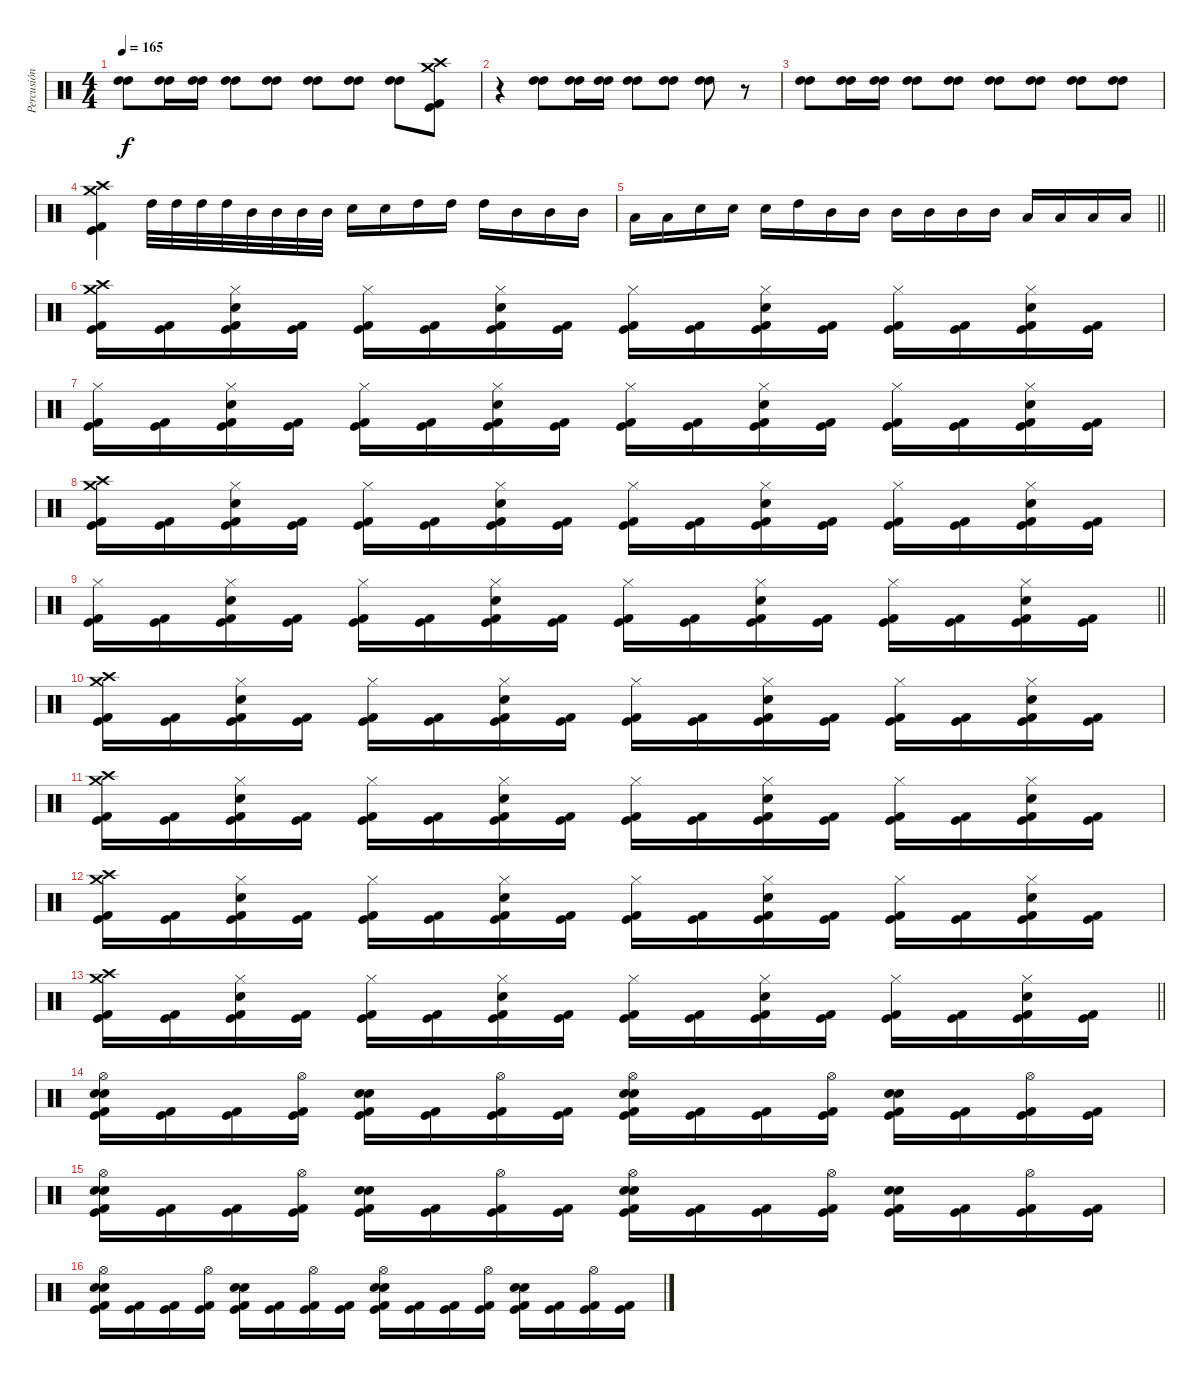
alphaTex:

\track ("Percusión" "Percusión") {instrument percussion}
\staff {score}
\articulation defaults
\ts (4 4)
\tempo 165
\clef neutral
\ks c
("High Tom (hit)" "High Tom (hit)").8{dy f} ("High Tom (hit)" "High Tom (hit)").16 ("High Tom (hit)" "High Tom (hit)").16 ("High Tom (hit)" "High Tom (hit)").8 ("High Tom (hit)" "High Tom (hit)").8 ("High Tom (hit)" "High Tom (hit)").8 ("High Tom (hit)" "High Tom (hit)").8 ("High Tom (hit)" "High Tom (hit)").8 ("Crash medium (hit)" "Crash high (hit)" "Kick (hit) 2" "Kick (hit)").8 |
r.4 ("High Tom (hit)" "High Tom (hit)").8 ("High Tom (hit)" "High Tom (hit)").16 ("High Tom (hit)" "High Tom (hit)").16 ("High Tom (hit)" "High Tom (hit)").8 ("High Tom (hit)" "High Tom (hit)").8 ("High Tom (hit)" "High Tom (hit)").8 r.8 |
("High Tom (hit)" "High Tom (hit)").8 ("High Tom (hit)" "High Tom (hit)").16 ("High Tom (hit)" "High Tom (hit)").16 ("High Tom (hit)" "High Tom (hit)").8 ("High Tom (hit)" "High Tom (hit)").8 ("High Tom (hit)" "High Tom (hit)").8 ("High Tom (hit)" "High Tom (hit)").8 ("High Tom (hit)" "High Tom (hit)").8 ("High Tom (hit)" "High Tom (hit)").8 |
("Crash medium (hit)" "Crash high (hit)" "Kick (hit) 2" "Kick (hit)").4 "High Tom (hit)".32 "High Tom (hit)".32 "High Tom (hit)".32 "High Tom (hit)".32 "Mid Tom (hit)".32 "Mid Tom (hit)".32 "Mid Tom (hit)".32 "Mid Tom (hit)".32 "Electric Snare (hit)".16 "Electric Snare (hit)".16 "High Tom (hit)".16 "High Tom (hit)".16 "High Tom (hit)".16 "Mid Tom (hit)".16 "Mid Tom (hit)".16 "Mid Tom (hit)".16 |
\barLineRight lightlight "Low Tom (hit)".16 "Low Tom (hit)".16 "Electric Snare (hit)".16 "Electric Snare (hit)".16 "Electric Snare (hit)".16 "High Tom (hit)".16 "Mid Tom (hit)".16 "Mid Tom (hit)".16 "Mid Tom (hit)".16 "Mid Tom (hit)".16 "Mid Tom (hit)".16 "Mid Tom (hit)".16 "Low Tom (hit)".16 "Low Tom (hit)".16 "Low Tom (hit)".16 "Low Tom (hit)".16
|
("Crash medium (hit)" "Crash high (hit)" "Kick (hit) 2" "Kick (hit)").16 ("Kick (hit) 2" "Kick (hit)").16 ("Hi-Hat (closed)" "Electric Snare (hit)" "Kick (hit) 2" "Kick (hit)").16 ("Kick (hit) 2" "Kick (hit)").16 ("Hi-Hat (closed)" "Kick (hit) 2" "Kick (hit)").16 ("Kick (hit) 2" "Kick (hit)").16 ("Hi-Hat (closed)" "Electric Snare (hit)" "Kick (hit) 2" "Kick (hit)").16 ("Kick (hit) 2" "Kick (hit)").16 ("Hi-Hat (closed)" "Kick (hit) 2" "Kick (hit)").16 ("Kick (hit) 2" "Kick (hit)").16 ("Hi-Hat (closed)" "Electric Snare (hit)" "Kick (hit) 2" "Kick (hit)").16 ("Kick (hit) 2" "Kick (hit)").16 ("Hi-Hat (closed)" "Kick (hit) 2" "Kick (hit)").16 ("Kick (hit) 2" "Kick (hit)").16 ("Hi-Hat (closed)" "Electric Snare (hit)" "Kick (hit) 2" "Kick (hit)").16 ("Kick (hit) 2" "Kick (hit)").16 |
("Hi-Hat (closed)" "Kick (hit) 2" "Kick (hit)").16 ("Kick (hit) 2" "Kick (hit)").16 ("Hi-Hat (closed)" "Electric Snare (hit)" "Kick (hit) 2" "Kick (hit)").16 ("Kick (hit) 2" "Kick (hit)").16 ("Hi-Hat (closed)" "Kick (hit) 2" "Kick (hit)").16 ("Kick (hit) 2" "Kick (hit)").16 ("Hi-Hat (closed)" "Electric Snare (hit)" "Kick (hit) 2" "Kick (hit)").16 ("Kick (hit) 2" "Kick (hit)").16 ("Hi-Hat (closed)" "Kick (hit) 2" "Kick (hit)").16 ("Kick (hit) 2" "Kick (hit)").16 ("Hi-Hat (closed)" "Electric Snare (hit)" "Kick (hit) 2" "Kick (hit)").16 ("Kick (hit) 2" "Kick (hit)").16 ("Hi-Hat (closed)" "Kick (hit) 2" "Kick (hit)").16 ("Kick (hit) 2" "Kick (hit)").16 ("Hi-Hat (closed)" "Electric Snare (hit)" "Kick (hit) 2" "Kick (hit)").16 ("Kick (hit) 2" "Kick (hit)").16 |
("Crash medium (hit)" "Crash high (hit)" "Kick (hit) 2" "Kick (hit)").16 ("Kick (hit) 2" "Kick (hit)").16 ("Hi-Hat (closed)" "Electric Snare (hit)" "Kick (hit) 2" "Kick (hit)").16 ("Kick (hit) 2" "Kick (hit)").16 ("Hi-Hat (closed)" "Kick (hit) 2" "Kick (hit)").16 ("Kick (hit) 2" "Kick (hit)").16 ("Hi-Hat (closed)" "Electric Snare (hit)" "Kick (hit) 2" "Kick (hit)").16 ("Kick (hit) 2" "Kick (hit)").16 ("Hi-Hat (closed)" "Kick (hit) 2" "Kick (hit)").16 ("Kick (hit) 2" "Kick (hit)").16 ("Hi-Hat (closed)" "Electric Snare (hit)" "Kick (hit) 2" "Kick (hit)").16 ("Kick (hit) 2" "Kick (hit)").16 ("Hi-Hat (closed)" "Kick (hit) 2" "Kick (hit)").16 ("Kick (hit) 2" "Kick (hit)").16 ("Hi-Hat (closed)" "Electric Snare (hit)" "Kick (hit) 2" "Kick (hit)").16 ("Kick (hit) 2" "Kick (hit)").16 |
\barLineRight lightlight
("Hi-Hat (closed)" "Kick (hit) 2" "Kick (hit)").16 ("Kick (hit) 2" "Kick (hit)").16 ("Hi-Hat (closed)" "Electric Snare (hit)" "Kick (hit) 2" "Kick (hit)").16 ("Kick (hit) 2" "Kick (hit)").16 ("Hi-Hat (closed)" "Kick (hit) 2" "Kick (hit)").16 ("Kick (hit) 2" "Kick (hit)").16 ("Hi-Hat (closed)" "Electric Snare (hit)" "Kick (hit) 2" "Kick (hit)").16 ("Kick (hit) 2" "Kick (hit)").16 ("Hi-Hat (closed)" "Kick (hit) 2" "Kick (hit)").16 ("Kick (hit) 2" "Kick (hit)").16 ("Hi-Hat (closed)" "Electric Snare (hit)" "Kick (hit) 2" "Kick (hit)").16 ("Kick (hit) 2" "Kick (hit)").16 ("Hi-Hat (closed)" "Kick (hit) 2" "Kick (hit)").16 ("Kick (hit) 2" "Kick (hit)").16 ("Hi-Hat (closed)" "Electric Snare (hit)" "Kick (hit) 2" "Kick (hit)").16 ("Kick (hit) 2" "Kick (hit)").16 |
("Crash medium (hit)" "Crash high (hit)" "Kick (hit) 2" "Kick (hit)").16 ("Kick (hit) 2" "Kick (hit)").16 ("Hi-Hat (closed)" "Electric Snare (hit)" "Kick (hit) 2" "Kick (hit)").16 ("Kick (hit) 2" "Kick (hit)").16 ("Hi-Hat (closed)" "Kick (hit) 2" "Kick (hit)").16 ("Kick (hit) 2" "Kick (hit)").16 ("Hi-Hat (closed)" "Electric Snare (hit)" "Kick (hit) 2" "Kick (hit)").16 ("Kick (hit) 2" "Kick (hit)").16 ("Hi-Hat (closed)" "Kick (hit) 2" "Kick (hit)").16 ("Kick (hit) 2" "Kick (hit)").16 ("Hi-Hat (closed)" "Electric Snare (hit)" "Kick (hit) 2" "Kick (hit)").16 ("Kick (hit) 2" "Kick (hit)").16 ("Hi-Hat (closed)" "Kick (hit) 2" "Kick (hit)").16 ("Kick (hit) 2" "Kick (hit)").16 ("Hi-Hat (closed)" "Electric Snare (hit)" "Kick (hit) 2" "Kick (hit)").16 ("Kick (hit) 2" "Kick (hit)").16 |
("Crash medium (hit)" "Crash high (hit)" "Kick (hit) 2" "Kick (hit)").16 ("Kick (hit) 2" "Kick (hit)").16 ("Hi-Hat (closed)" "Electric Snare (hit)" "Kick (hit) 2" "Kick (hit)").16 ("Kick (hit) 2" "Kick (hit)").16 ("Hi-Hat (closed)" "Kick (hit) 2" "Kick (hit)").16 ("Kick (hit) 2" "Kick (hit)").16 ("Hi-Hat (closed)" "Electric Snare (hit)" "Kick (hit) 2" "Kick (hit)").16 ("Kick (hit) 2" "Kick (hit)").16 ("Hi-Hat (closed)" "Kick (hit) 2" "Kick (hit)").16 ("Kick (hit) 2" "Kick (hit)").16 ("Hi-Hat (closed)" "Electric Snare (hit)" "Kick (hit) 2" "Kick (hit)").16 ("Kick (hit) 2" "Kick (hit)").16 ("Hi-Hat (closed)" "Kick (hit) 2" "Kick (hit)").16 ("Kick (hit) 2" "Kick (hit)").16 ("Hi-Hat (closed)" "Electric Snare (hit)" "Kick (hit) 2" "Kick (hit)").16 ("Kick (hit) 2" "Kick (hit)").16 |
("Crash medium (hit)" "Crash high (hit)" "Kick (hit) 2" "Kick (hit)").16 ("Kick (hit) 2" "Kick (hit)").16 ("Hi-Hat (closed)" "Electric Snare (hit)" "Kick (hit) 2" "Kick (hit)").16 ("Kick (hit) 2" "Kick (hit)").16 ("Hi-Hat (closed)" "Kick (hit) 2" "Kick (hit)").16 ("Kick (hit) 2" "Kick (hit)").16 ("Hi-Hat (closed)" "Electric Snare (hit)" "Kick (hit) 2" "Kick (hit)").16 ("Kick (hit) 2" "Kick (hit)").16 ("Hi-Hat (closed)" "Kick (hit) 2" "Kick (hit)").16 ("Kick (hit) 2" "Kick (hit)").16 ("Hi-Hat (closed)" "Electric Snare (hit)" "Kick (hit) 2" "Kick (hit)").16 ("Kick (hit) 2" "Kick (hit)").16 ("Hi-Hat (closed)" "Kick (hit) 2" "Kick (hit)").16 ("Kick (hit) 2" "Kick (hit)").16 ("Hi-Hat (closed)" "Electric Snare (hit)" "Kick (hit) 2" "Kick (hit)").16 ("Kick (hit) 2" "Kick (hit)").16 |
\barLineRight lightlight
("Crash medium (hit)" "Crash high (hit)" "Kick (hit) 2" "Kick (hit)").16 ("Kick (hit) 2" "Kick (hit)").16 ("Hi-Hat (closed)" "Electric Snare (hit)" "Kick (hit) 2" "Kick (hit)").16 ("Kick (hit) 2" "Kick (hit)").16 ("Hi-Hat (closed)" "Kick (hit) 2" "Kick (hit)").16 ("Kick (hit) 2" "Kick (hit)").16 ("Hi-Hat (closed)" "Electric Snare (hit)" "Kick (hit) 2" "Kick (hit)").16 ("Kick (hit) 2" "Kick (hit)").16 ("Hi-Hat (closed)" "Kick (hit) 2" "Kick (hit)").16 ("Kick (hit) 2" "Kick (hit)").16 ("Hi-Hat (closed)" "Electric Snare (hit)" "Kick (hit) 2" "Kick (hit)").16 ("Kick (hit) 2" "Kick (hit)").16 ("Hi-Hat (closed)" "Kick (hit) 2" "Kick (hit)").16 ("Kick (hit) 2" "Kick (hit)").16 ("Hi-Hat (closed)" "Electric Snare (hit)" "Kick (hit) 2" "Kick (hit)").16 ("Kick (hit) 2" "Kick (hit)").16 |
("Hi-Hat (open)" "Electric Snare (hit)" "Electric Snare (hit)" "Kick (hit)" "Kick (hit) 2").16 ("Kick (hit)" "Kick (hit) 2").16 ("Kick (hit)" "Kick (hit) 2").16 ("Hi-Hat (open)" "Kick (hit)" "Kick (hit) 2").16 ("Electric Snare (hit)" "Electric Snare (hit)" "Kick (hit)" "Kick (hit) 2").16 ("Kick (hit)" "Kick (hit) 2").16 ("Hi-Hat (open)" "Kick (hit)" "Kick (hit) 2").16 ("Kick (hit)" "Kick (hit) 2").16 ("Hi-Hat (open)" "Electric Snare (hit)" "Electric Snare (hit)" "Kick (hit)" "Kick (hit) 2").16 ("Kick (hit)" "Kick (hit) 2").16 ("Kick (hit)" "Kick (hit) 2").16 ("Hi-Hat (open)" "Kick (hit)" "Kick (hit) 2").16 ("Electric Snare (hit)" "Electric Snare (hit)" "Kick (hit)" "Kick (hit) 2").16 ("Kick (hit) 2" "Kick (hit)").16 ("Hi-Hat (open)" "Kick (hit) 2" "Kick (hit)").16 ("Kick (hit) 2" "Kick (hit)").16 |
("Hi-Hat (open)" "Electric Snare (hit)" "Electric Snare (hit)" "Kick (hit)" "Kick (hit) 2").16 ("Kick (hit)" "Kick (hit) 2").16 ("Kick (hit)" "Kick (hit) 2").16 ("Hi-Hat (open)" "Kick (hit)" "Kick (hit) 2").16 ("Electric Snare (hit)" "Electric Snare (hit)" "Kick (hit)" "Kick (hit) 2").16 ("Kick (hit)" "Kick (hit) 2").16 ("Hi-Hat (open)" "Kick (hit)" "Kick (hit) 2").16 ("Kick (hit)" "Kick (hit) 2").16 ("Hi-Hat (open)" "Electric Snare (hit)" "Electric Snare (hit)" "Kick (hit)" "Kick (hit) 2").16 ("Kick (hit)" "Kick (hit) 2").16 ("Kick (hit)" "Kick (hit) 2").16 ("Hi-Hat (open)" "Kick (hit)" "Kick (hit) 2").16 ("Electric Snare (hit)" "Electric Snare (hit)" "Kick (hit)" "Kick (hit) 2").16 ("Kick (hit) 2" "Kick (hit)").16 ("Hi-Hat (open)" "Kick (hit) 2" "Kick (hit)").16 ("Kick (hit) 2" "Kick (hit)").16 |
("Hi-Hat (open)" "Electric Snare (hit)" "Electric Snare (hit)" "Kick (hit)" "Kick (hit) 2").16 ("Kick (hit)" "Kick (hit) 2").16 ("Kick (hit)" "Kick (hit) 2").16 ("Hi-Hat (open)" "Kick (hit)" "Kick (hit) 2").16 ("Electric Snare (hit)" "Electric Snare (hit)" "Kick (hit)" "Kick (hit) 2").16 ("Kick (hit)" "Kick (hit) 2").16 ("Hi-Hat (open)" "Kick (hit)" "Kick (hit) 2").16 ("Kick (hit)" "Kick (hit) 2").16 ("Hi-Hat (open)" "Electric Snare (hit)" "Electric Snare (hit)" "Kick (hit)" "Kick (hit) 2").16 ("Kick (hit)" "Kick (hit) 2").16 ("Kick (hit)" "Kick (hit) 2").16 ("Hi-Hat (open)" "Kick (hit)" "Kick (hit) 2").16 ("Electric Snare (hit)" "Electric Snare (hit)" "Kick (hit)" "Kick (hit) 2").16 ("Kick (hit) 2" "Kick (hit)").16 ("Hi-Hat (open)" "Kick (hit) 2" "Kick (hit)").16 ("Kick (hit) 2" "Kick (hit)").16
